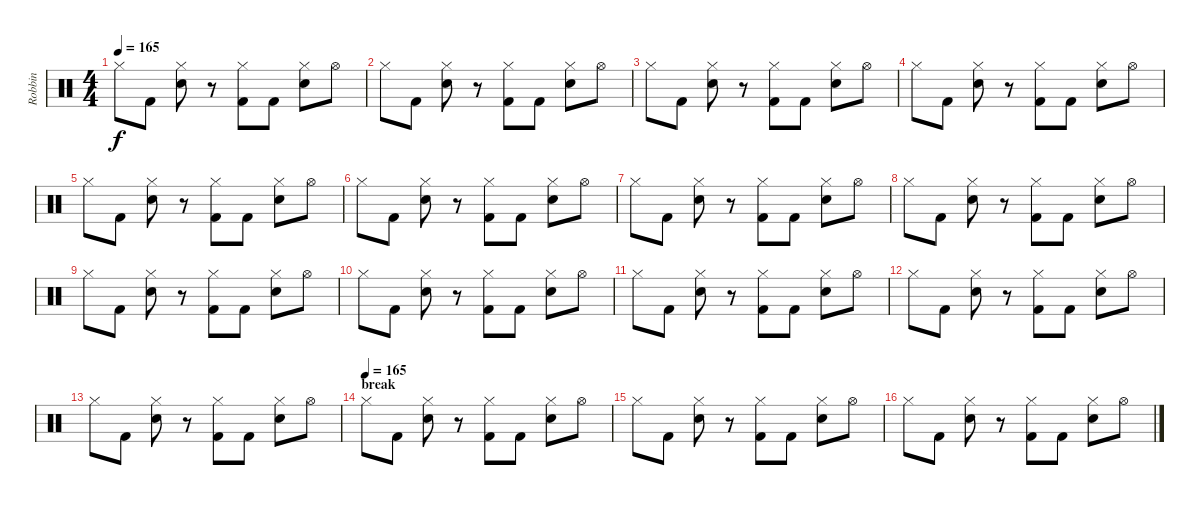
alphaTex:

\track ("Robbin" "Robbin") {instrument percussion}
\staff {score}
\articulation defaults
\ts (4 4)
\tempo 165
\clef neutral
\ks c "Hi-Hat (closed)".8{dy f} "Kick (hit) 2".8
("Hi-Hat (closed)" "Snare (hit) 2").8 r.8 ("Hi-Hat (closed)" "Kick (hit) 2").8 "Kick (hit) 2".8 ("Hi-Hat (closed)" "Snare (hit) 2").8 "Hi-Hat (open)".8 |
"Hi-Hat (closed)".8 "Kick (hit) 2".8 ("Hi-Hat (closed)" "Snare (hit) 2").8 r.8 ("Hi-Hat (closed)" "Kick (hit) 2").8 "Kick (hit) 2".8 ("Hi-Hat (closed)" "Snare (hit) 2").8 "Hi-Hat (open)".8 |
"Hi-Hat (closed)".8 "Kick (hit) 2".8 ("Hi-Hat (closed)" "Snare (hit) 2").8 r.8 ("Hi-Hat (closed)" "Kick (hit) 2").8 "Kick (hit) 2".8 ("Hi-Hat (closed)" "Snare (hit) 2").8 "Hi-Hat (open)".8 |
"Hi-Hat (closed)".8 "Kick (hit) 2".8 ("Hi-Hat (closed)" "Snare (hit) 2").8 r.8 ("Hi-Hat (closed)" "Kick (hit) 2").8 "Kick (hit) 2".8 ("Hi-Hat (closed)" "Snare (hit) 2").8 "Hi-Hat (open)".8 |
"Hi-Hat (closed)".8 "Kick (hit) 2".8 ("Hi-Hat (closed)" "Snare (hit) 2").8 r.8 ("Hi-Hat (closed)" "Kick (hit) 2").8 "Kick (hit) 2".8 ("Hi-Hat (closed)" "Snare (hit) 2").8 "Hi-Hat (open)".8 |
"Hi-Hat (closed)".8 "Kick (hit) 2".8 ("Hi-Hat (closed)" "Snare (hit) 2").8 r.8 ("Hi-Hat (closed)" "Kick (hit) 2").8 "Kick (hit) 2".8 ("Hi-Hat (closed)" "Snare (hit) 2").8 "Hi-Hat (open)".8 |
"Hi-Hat (closed)".8 "Kick (hit) 2".8 ("Hi-Hat (closed)" "Snare (hit) 2").8 r.8 ("Hi-Hat (closed)" "Kick (hit) 2").8 "Kick (hit) 2".8 ("Hi-Hat (closed)" "Snare (hit) 2").8 "Hi-Hat (open)".8 |
"Hi-Hat (closed)".8 "Kick (hit) 2".8 ("Hi-Hat (closed)" "Snare (hit) 2").8 r.8 ("Hi-Hat (closed)" "Kick (hit) 2").8 "Kick (hit) 2".8 ("Hi-Hat (closed)" "Snare (hit) 2").8 "Hi-Hat (open)".8 |
"Hi-Hat (closed)".8 "Kick (hit) 2".8 ("Hi-Hat (closed)" "Snare (hit) 2").8 r.8 ("Hi-Hat (closed)" "Kick (hit) 2").8 "Kick (hit) 2".8 ("Hi-Hat (closed)" "Snare (hit) 2").8 "Hi-Hat (open)".8 |
"Hi-Hat (closed)".8 "Kick (hit) 2".8 ("Hi-Hat (closed)" "Snare (hit) 2").8 r.8 ("Hi-Hat (closed)" "Kick (hit) 2").8 "Kick (hit) 2".8 ("Hi-Hat (closed)" "Snare (hit) 2").8 "Hi-Hat (open)".8 |
"Hi-Hat (closed)".8 "Kick (hit) 2".8 ("Hi-Hat (closed)" "Snare (hit) 2").8 r.8 ("Hi-Hat (closed)" "Kick (hit) 2").8 "Kick (hit) 2".8 ("Hi-Hat (closed)" "Snare (hit) 2").8 "Hi-Hat (open)".8 |
"Hi-Hat (closed)".8 "Kick (hit) 2".8 ("Hi-Hat (closed)" "Snare (hit) 2").8 r.8 ("Hi-Hat (closed)" "Kick (hit) 2").8 "Kick (hit) 2".8 ("Hi-Hat (closed)" "Snare (hit) 2").8 "Hi-Hat (open)".8 |
"Hi-Hat (closed)".8 "Kick (hit) 2".8 ("Hi-Hat (closed)" "Snare (hit) 2").8 r.8 ("Hi-Hat (closed)" "Kick (hit) 2").8 "Kick (hit) 2".8 ("Hi-Hat (closed)" "Snare (hit) 2").8 "Hi-Hat (open)".8 |
\section ("" "break")
\tempo (165)
"Hi-Hat (closed)".8 "Kick (hit) 2".8 ("Hi-Hat (closed)" "Snare (hit) 2").8 r.8 ("Hi-Hat (closed)" "Kick (hit) 2").8 "Kick (hit) 2".8 ("Hi-Hat (closed)" "Snare (hit) 2").8 "Hi-Hat (open)".8 |
"Hi-Hat (closed)".8 "Kick (hit) 2".8 ("Hi-Hat (closed)" "Snare (hit) 2").8 r.8 ("Hi-Hat (closed)" "Kick (hit) 2").8 "Kick (hit) 2".8 ("Hi-Hat (closed)" "Snare (hit) 2").8 "Hi-Hat (open)".8 |
"Hi-Hat (closed)".8 "Kick (hit) 2".8 ("Hi-Hat (closed)" "Snare (hit) 2").8 r.8 ("Hi-Hat (closed)" "Kick (hit) 2").8 "Kick (hit) 2".8 ("Hi-Hat (closed)" "Snare (hit) 2").8 "Hi-Hat (open)".8
